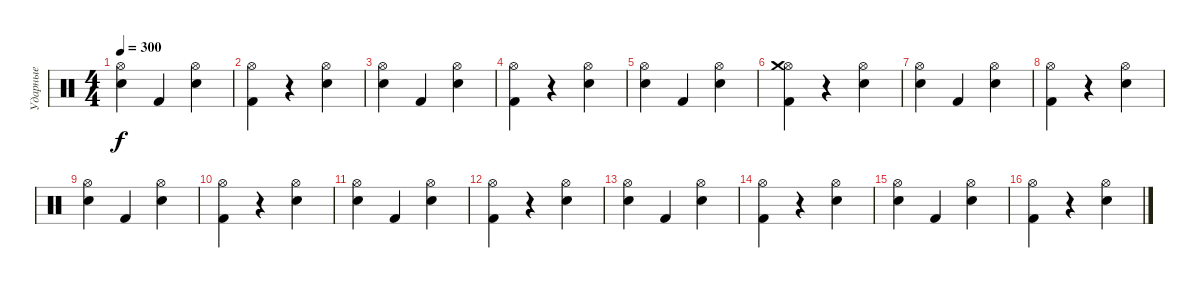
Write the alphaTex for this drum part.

\track ("Ударные" "Ударные") {instrument percussion}
\staff
\articulation defaults
\ts (4 4)
\tempo 300
\clef neutral
\ks c
("Snare (hit)" "Hi-Hat (open)").4{dy f} "Kick (hit) 2".4 ("Electric Snare (hit)" "Hi-Hat (open)").4 |
("Hi-Hat (open)" "Kick (hit) 2").4 r.4 ("Electric Snare (hit)" "Hi-Hat (open)").4 |
("Snare (hit)" "Hi-Hat (open)").4 "Kick (hit) 2".4 ("Electric Snare (hit)" "Hi-Hat (open)").4 |
("Hi-Hat (open)" "Kick (hit) 2").4 r.4 ("Electric Snare (hit)" "Hi-Hat (open)").4 |
("Snare (hit)" "Hi-Hat (open)").4 "Kick (hit) 2".4 ("Electric Snare (hit)" "Hi-Hat (open)").4 |
("Hi-Hat (open)" "Kick (hit) 2" "Crash medium (hit)").4 r.4 ("Electric Snare (hit)" "Hi-Hat (open)").4 |
("Snare (hit)" "Hi-Hat (open)").4 "Kick (hit) 2".4 ("Electric Snare (hit)" "Hi-Hat (open)").4 |
("Hi-Hat (open)" "Kick (hit) 2").4 r.4 ("Electric Snare (hit)" "Hi-Hat (open)").4 |
("Snare (hit)" "Hi-Hat (open)").4 "Kick (hit) 2".4 ("Electric Snare (hit)" "Hi-Hat (open)").4 |
("Hi-Hat (open)" "Kick (hit) 2").4 r.4 ("Electric Snare (hit)" "Hi-Hat (open)").4 |
("Snare (hit)" "Hi-Hat (open)").4 "Kick (hit) 2".4 ("Electric Snare (hit)" "Hi-Hat (open)").4 |
("Hi-Hat (open)" "Kick (hit) 2").4 r.4 ("Electric Snare (hit)" "Hi-Hat (open)").4 |
("Snare (hit)" "Hi-Hat (open)").4 "Kick (hit) 2".4 ("Electric Snare (hit)" "Hi-Hat (open)").4 |
("Hi-Hat (open)" "Kick (hit) 2").4 r.4 ("Electric Snare (hit)" "Hi-Hat (open)").4 |
("Snare (hit)" "Hi-Hat (open)").4 "Kick (hit) 2".4 ("Electric Snare (hit)" "Hi-Hat (open)").4 |
("Hi-Hat (open)" "Kick (hit) 2").4 r.4 ("Electric Snare (hit)" "Hi-Hat (open)").4
